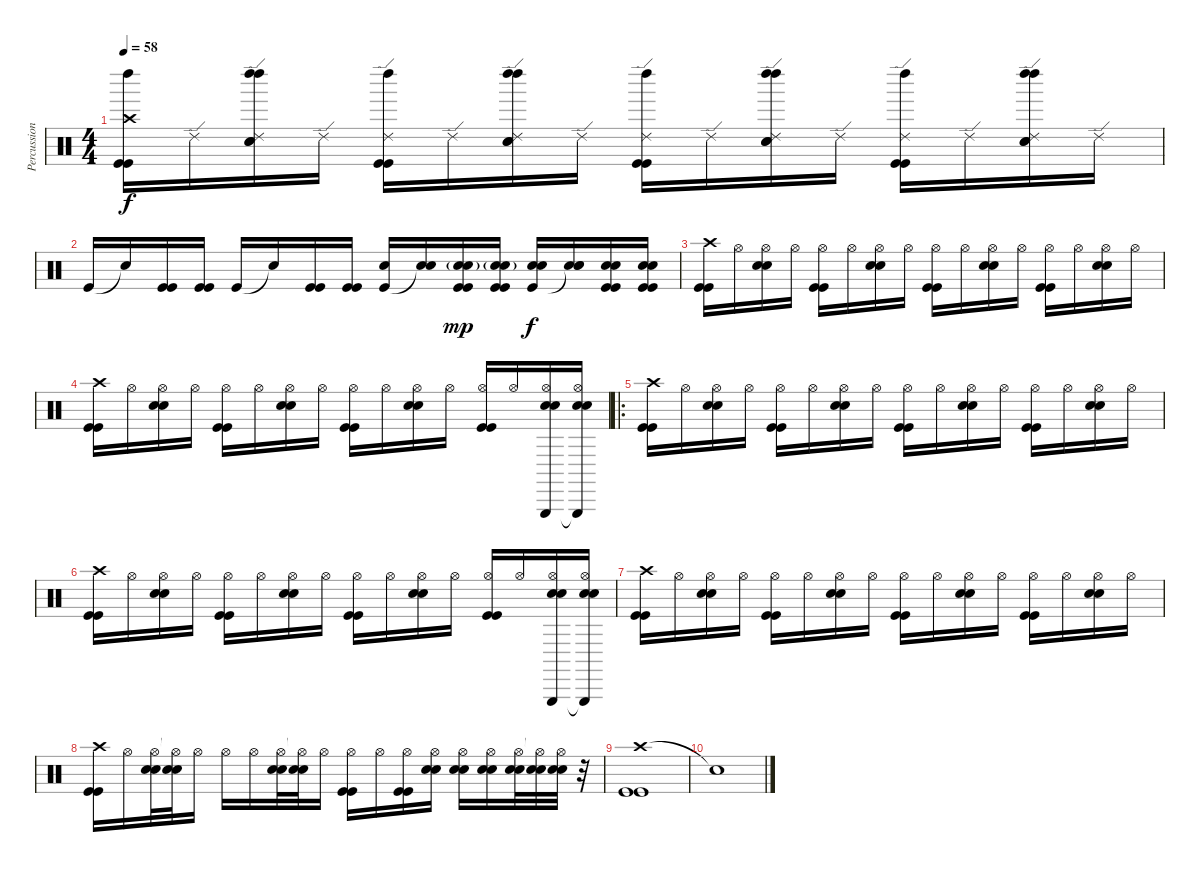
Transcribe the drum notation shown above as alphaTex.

\track ("Percussions" "Percussion") {instrument percussion}
\staff {score}
\articulation defaults
\ts (4 4)
\tempo 58
\clef neutral
\ks c
("Crash high (hit)" "Left Maraca (hit)" "Kick (hit)" "Kick (hit)").16{dy f} "Ride (edge) 2".16 ("Ride (edge) 2" "Snare (hit) 2" "Snare (hit) 2" "Left Maraca (hit)" "Left Maraca (hit)").16 "Ride (edge) 2".16 ("Ride (edge) 2" "Left Maraca (hit)" "Kick (hit)" "Kick (hit)").16 "Ride (edge) 2".16 ("Ride (edge) 2" "Snare (hit) 2" "Snare (hit) 2" "Left Maraca (hit)" "Left Maraca (hit)").16 "Ride (edge) 2".16 ("Ride (edge) 2" "Left Maraca (hit)" "Kick (hit)" "Kick (hit)").16 "Ride (edge) 2".16 ("Ride (edge) 2" "Snare (hit) 2" "Snare (hit) 2" "Left Maraca (hit)" "Left Maraca (hit)").16 "Ride (edge) 2".16 ("Ride (edge) 2" "Left Maraca (hit)" "Kick (hit)" "Kick (hit)").16 "Ride (edge) 2".16 ("Ride (edge) 2" "Snare (hit) 2" "Snare (hit) 2" "Left Maraca (hit)" "Left Maraca (hit)").16 "Ride (edge) 2".16 |
"Kick (hit)".16 "Snare (hit)"{t}.16 ("Kick (hit)" "Kick (hit)").16 ("Kick (hit)" "Kick (hit)").16 "Kick (hit)".16 "Snare (hit)"{t}.16 ("Kick (hit)" "Kick (hit)").16 ("Kick (hit)" "Kick (hit)").16 ("Snare (hit) 2" "Kick (hit)").16 ("Snare (hit) 2" "Snare (hit)"{t}).16 ("Snare (hit) 2"{g} "Snare (hit) 2" "Kick (hit)" "Kick (hit)").16{dy mp} ("Snare (hit) 2"{g} "Snare (hit) 2" "Kick (hit)" "Kick (hit)").16 ("Snare (hit) 2" "Snare (hit) 2" "Kick (hit)").16{dy f} ("Snare (hit) 2" "Snare (hit) 2" "Snare (hit)"{t}).16 ("Snare (hit) 2" "Snare (hit) 2" "Kick (hit)" "Kick (hit)").16 ("Snare (hit) 2" "Snare (hit) 2" "Kick (hit)" "Kick (hit)").16 |
("Crash high (hit)" "Kick (hit)" "Kick (hit)").16 "Hi-Hat (open)".16 ("Hi-Hat (open)" "Snare (hit) 2" "Snare (hit) 2").16 "Hi-Hat (open)".16 ("Hi-Hat (open)" "Kick (hit)" "Kick (hit)").16 "Hi-Hat (open)".16 ("Hi-Hat (open)" "Snare (hit) 2" "Snare (hit) 2").16 "Hi-Hat (open)".16 ("Hi-Hat (open)" "Kick (hit)" "Kick (hit)").16 "Hi-Hat (open)".16 ("Hi-Hat (open)" "Snare (hit) 2" "Snare (hit) 2").16 "Hi-Hat (open)".16 ("Hi-Hat (open)" "Kick (hit)" "Kick (hit)").16 "Hi-Hat (open)".16 ("Hi-Hat (open)" "Snare (hit) 2" "Snare (hit) 2").16 "Hi-Hat (open)".16 |
("Crash high (hit)" "Kick (hit)" "Kick (hit)").16 "Hi-Hat (open)".16 ("Hi-Hat (open)" "Snare (hit) 2" "Snare (hit) 2").16 "Hi-Hat (open)".16 ("Hi-Hat (open)" "Kick (hit)" "Kick (hit)").16 "Hi-Hat (open)".16 ("Hi-Hat (open)" "Snare (hit) 2" "Snare (hit) 2").16 "Hi-Hat (open)".16 ("Hi-Hat (open)" "Kick (hit)" "Kick (hit)").16 "Hi-Hat (open)".16 ("Hi-Hat (open)" "Snare (hit) 2" "Snare (hit) 2").16 "Hi-Hat (open)".16 ("Hi-Hat (open)" "Kick (hit)" "Kick (hit)").16 "Hi-Hat (open)".16 ("Hi-Hat (open)" "Triangle (hit)" "Snare (hit) 2" "Snare (hit) 2").16 ("Hi-Hat (open)" "Triangle (hit)"{t} "Snare (hit) 2" "Snare (hit) 2").16 |
\ro
("Crash high (hit)" "Kick (hit)" "Kick (hit)").16 "Hi-Hat (open)".16 ("Hi-Hat (open)" "Snare (hit) 2" "Snare (hit) 2").16 "Hi-Hat (open)".16 ("Hi-Hat (open)" "Kick (hit)" "Kick (hit)").16 "Hi-Hat (open)".16 ("Hi-Hat (open)" "Snare (hit) 2" "Snare (hit) 2").16 "Hi-Hat (open)".16 ("Hi-Hat (open)" "Kick (hit)" "Kick (hit)").16 "Hi-Hat (open)".16 ("Hi-Hat (open)" "Snare (hit) 2" "Snare (hit) 2").16 "Hi-Hat (open)".16 ("Hi-Hat (open)" "Kick (hit)" "Kick (hit)").16 "Hi-Hat (open)".16 ("Hi-Hat (open)" "Snare (hit) 2" "Snare (hit) 2").16 "Hi-Hat (open)".16 |
("Crash high (hit)" "Kick (hit)" "Kick (hit)").16 "Hi-Hat (open)".16 ("Hi-Hat (open)" "Snare (hit) 2" "Snare (hit) 2").16 "Hi-Hat (open)".16 ("Hi-Hat (open)" "Kick (hit)" "Kick (hit)").16 "Hi-Hat (open)".16 ("Hi-Hat (open)" "Snare (hit) 2" "Snare (hit) 2").16 "Hi-Hat (open)".16 ("Hi-Hat (open)" "Kick (hit)" "Kick (hit)").16 "Hi-Hat (open)".16 ("Hi-Hat (open)" "Snare (hit) 2" "Snare (hit) 2").16 "Hi-Hat (open)".16 ("Hi-Hat (open)" "Kick (hit)" "Kick (hit)").16 "Hi-Hat (open)".16 ("Hi-Hat (open)" "Triangle (hit)" "Snare (hit) 2" "Snare (hit) 2").16 ("Hi-Hat (open)" "Triangle (hit)"{t} "Snare (hit) 2" "Snare (hit) 2").16 |
("Crash high (hit)" "Kick (hit)" "Kick (hit)").16 "Hi-Hat (open)".16 ("Hi-Hat (open)" "Snare (hit) 2" "Snare (hit) 2").16 "Hi-Hat (open)".16 ("Hi-Hat (open)" "Kick (hit)" "Kick (hit)").16 "Hi-Hat (open)".16 ("Hi-Hat (open)" "Snare (hit) 2" "Snare (hit) 2").16 "Hi-Hat (open)".16 ("Hi-Hat (open)" "Kick (hit)" "Kick (hit)").16 "Hi-Hat (open)".16 ("Hi-Hat (open)" "Snare (hit) 2" "Snare (hit) 2").16 "Hi-Hat (open)".16 ("Hi-Hat (open)" "Kick (hit)" "Kick (hit)").16 "Hi-Hat (open)".16 ("Hi-Hat (open)" "Snare (hit) 2" "Snare (hit) 2").16 "Hi-Hat (open)".16 |
("Crash high (hit)" "Kick (hit)" "Kick (hit)").16 "Hi-Hat (open)".16 ("Hi-Hat (open)" "Snare (hit) 2" "Snare (hit) 2").32 ("Hi-Hat (open)"{t} "Snare (hit) 2" "Snare (hit) 2").32 "Hi-Hat (open)".16 "Hi-Hat (open)".16 "Hi-Hat (open)".16 ("Hi-Hat (open)" "Snare (hit) 2" "Snare (hit) 2").32 ("Hi-Hat (open)"{t} "Snare (hit) 2" "Snare (hit) 2").32 "Hi-Hat (open)".16 ("Hi-Hat (open)" "Kick (hit)" "Kick (hit)").16 "Hi-Hat (open)".16 ("Hi-Hat (open)" "Kick (hit)" "Kick (hit)").16 ("Hi-Hat (open)" "Snare (hit) 2" "Snare (hit) 2").16 ("Hi-Hat (open)" "Snare (hit) 2" "Snare (hit) 2").16 ("Hi-Hat (open)" "Snare (hit) 2" "Snare (hit) 2").16 ("Hi-Hat (open)" "Snare (hit) 2" "Snare (hit) 2").32 ("Hi-Hat (open)"{t} "Snare (hit) 2" "Snare (hit) 2").32 ("Hi-Hat (open)" "Snare (hit) 2" "Snare (hit) 2").32 r.32 |
("Crash high (hit)" "Kick (hit)" "Kick (hit)").1 |
"Snare (hit)"{t}.1
